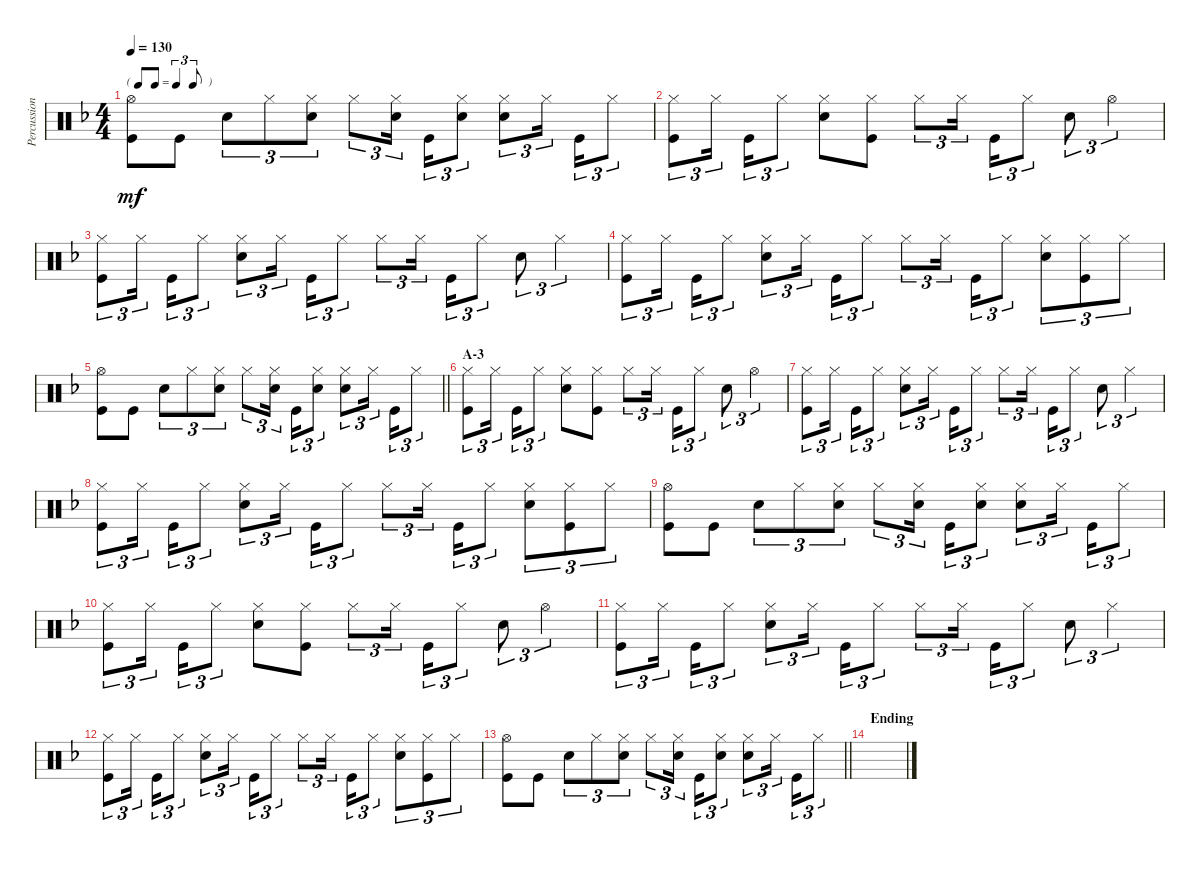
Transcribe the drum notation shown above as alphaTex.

\track ("Percussion I (Tainaka Ritsu)" "Percussion") {instrument percussion}
\staff {score}
\articulation defaults
\ts (4 4)
\tf triplet8th
\tempo 130
\clef neutral
\ks f
("Hi-Hat (open)" "Kick (hit)").8{dy mf} "Kick (hit)".8 "Snare (hit) 2".8{tu (3 2)} "Hi-Hat (closed)".8{tu (3 2)} ("Hi-Hat (closed)" "Snare (hit) 2").8{tu (3 2)} "Hi-Hat (closed)".8{tu (3 2)} ("Hi-Hat (closed)" "Snare (hit) 2").16{tu (3 2) beam splitsecondary} "Kick (hit)".16{tu (3 2)} ("Hi-Hat (closed)" "Snare (hit) 2").8{tu (3 2)} ("Hi-Hat (closed)" "Snare (hit) 2").8{tu (3 2)} "Hi-Hat (closed)".16{tu (3 2) beam splitsecondary} "Kick (hit)".16{tu (3 2)} "Hi-Hat (closed)".8{tu (3 2)} |
("Hi-Hat (closed)" "Kick (hit)").8{tu (3 2)} "Hi-Hat (closed)".16{tu (3 2) beam splitsecondary} "Kick (hit)".16{tu (3 2)} "Hi-Hat (closed)".8{tu (3 2)} ("Hi-Hat (closed)" "Snare (hit) 2").8 ("Hi-Hat (closed)" "Kick (hit)").8 "Hi-Hat (closed)".8{tu (3 2)} "Hi-Hat (closed)".16{tu (3 2) beam splitsecondary} "Kick (hit)".16{tu (3 2)} "Hi-Hat (closed)".8{tu (3 2)} "Snare (hit) 2".8{tu (3 2)} "Hi-Hat (open)".4{tu (3 2)} |
("Hi-Hat (closed)" "Kick (hit)").8{tu (3 2)} "Hi-Hat (closed)".16{tu (3 2) beam splitsecondary} "Kick (hit)".16{tu (3 2)} "Hi-Hat (closed)".8{tu (3 2)} ("Hi-Hat (closed)" "Snare (hit) 2").8{tu (3 2)} "Hi-Hat (closed)".16{tu (3 2) beam splitsecondary} "Kick (hit)".16{tu (3 2)} "Hi-Hat (closed)".8{tu (3 2)} "Hi-Hat (closed)".8{tu (3 2)} "Hi-Hat (closed)".16{tu (3 2) beam splitsecondary} "Kick (hit)".16{tu (3 2)} "Hi-Hat (closed)".8{tu (3 2)} "Snare (hit) 2".8{tu (3 2)} "Hi-Hat (closed)".4{tu (3 2)} |
("Hi-Hat (closed)" "Kick (hit)").8{tu (3 2)} "Hi-Hat (closed)".16{tu (3 2) beam splitsecondary} "Kick (hit)".16{tu (3 2)} "Hi-Hat (closed)".8{tu (3 2)} ("Hi-Hat (closed)" "Snare (hit) 2").8{tu (3 2)} "Hi-Hat (closed)".16{tu (3 2) beam splitsecondary} "Kick (hit)".16{tu (3 2)} "Hi-Hat (closed)".8{tu (3 2)} "Hi-Hat (closed)".8{tu (3 2)} "Hi-Hat (closed)".16{tu (3 2) beam splitsecondary} "Kick (hit)".16{tu (3 2)} "Hi-Hat (closed)".8{tu (3 2)} ("Hi-Hat (closed)" "Snare (hit) 2").8{tu (3 2)} ("Hi-Hat (closed)" "Kick (hit)").8{tu (3 2)} "Hi-Hat (closed)".8{tu (3 2)} |
\barLineRight lightlight
("Hi-Hat (open)" "Kick (hit)").8 "Kick (hit)".8 "Snare (hit) 2".8{tu (3 2)} "Hi-Hat (closed)".8{tu (3 2)} ("Hi-Hat (closed)" "Snare (hit) 2").8{tu (3 2)} "Hi-Hat (closed)".8{tu (3 2)} ("Hi-Hat (closed)" "Snare (hit) 2").16{tu (3 2) beam splitsecondary} "Kick (hit)".16{tu (3 2)} ("Hi-Hat (closed)" "Snare (hit) 2").8{tu (3 2)} ("Hi-Hat (closed)" "Snare (hit) 2").8{tu (3 2)} "Hi-Hat (closed)".16{tu (3 2) beam splitsecondary} "Kick (hit)".16{tu (3 2)} "Hi-Hat (closed)".8{tu (3 2)} |
\section ("" "A-3")
("Hi-Hat (closed)" "Kick (hit)").8{tu (3 2)} "Hi-Hat (closed)".16{tu (3 2) beam splitsecondary} "Kick (hit)".16{tu (3 2)} "Hi-Hat (closed)".8{tu (3 2)} ("Hi-Hat (closed)" "Snare (hit) 2").8 ("Hi-Hat (closed)" "Kick (hit)").8 "Hi-Hat (closed)".8{tu (3 2)} "Hi-Hat (closed)".16{tu (3 2) beam splitsecondary} "Kick (hit)".16{tu (3 2)} "Hi-Hat (closed)".8{tu (3 2)} "Snare (hit) 2".8{tu (3 2)} "Hi-Hat (open)".4{tu (3 2)} |
("Hi-Hat (closed)" "Kick (hit)").8{tu (3 2)} "Hi-Hat (closed)".16{tu (3 2) beam splitsecondary} "Kick (hit)".16{tu (3 2)} "Hi-Hat (closed)".8{tu (3 2)} ("Hi-Hat (closed)" "Snare (hit) 2").8{tu (3 2)} "Hi-Hat (closed)".16{tu (3 2) beam splitsecondary} "Kick (hit)".16{tu (3 2)} "Hi-Hat (closed)".8{tu (3 2)} "Hi-Hat (closed)".8{tu (3 2)} "Hi-Hat (closed)".16{tu (3 2) beam splitsecondary} "Kick (hit)".16{tu (3 2)} "Hi-Hat (closed)".8{tu (3 2)} "Snare (hit) 2".8{tu (3 2)} "Hi-Hat (closed)".4{tu (3 2)} |
("Hi-Hat (closed)" "Kick (hit)").8{tu (3 2)} "Hi-Hat (closed)".16{tu (3 2) beam splitsecondary} "Kick (hit)".16{tu (3 2)} "Hi-Hat (closed)".8{tu (3 2)} ("Hi-Hat (closed)" "Snare (hit) 2").8{tu (3 2)} "Hi-Hat (closed)".16{tu (3 2) beam splitsecondary} "Kick (hit)".16{tu (3 2)} "Hi-Hat (closed)".8{tu (3 2)} "Hi-Hat (closed)".8{tu (3 2)} "Hi-Hat (closed)".16{tu (3 2) beam splitsecondary} "Kick (hit)".16{tu (3 2)} "Hi-Hat (closed)".8{tu (3 2)} ("Hi-Hat (closed)" "Snare (hit) 2").8{tu (3 2)} ("Hi-Hat (closed)" "Kick (hit)").8{tu (3 2)} "Hi-Hat (closed)".8{tu (3 2)} |
("Hi-Hat (open)" "Kick (hit)").8 "Kick (hit)".8 "Snare (hit) 2".8{tu (3 2)} "Hi-Hat (closed)".8{tu (3 2)} ("Hi-Hat (closed)" "Snare (hit) 2").8{tu (3 2)} "Hi-Hat (closed)".8{tu (3 2)} ("Hi-Hat (closed)" "Snare (hit) 2").16{tu (3 2) beam splitsecondary} "Kick (hit)".16{tu (3 2)} ("Hi-Hat (closed)" "Snare (hit) 2").8{tu (3 2)} ("Hi-Hat (closed)" "Snare (hit) 2").8{tu (3 2)} "Hi-Hat (closed)".16{tu (3 2) beam splitsecondary} "Kick (hit)".16{tu (3 2)} "Hi-Hat (closed)".8{tu (3 2)} |
("Hi-Hat (closed)" "Kick (hit)").8{tu (3 2)} "Hi-Hat (closed)".16{tu (3 2) beam splitsecondary} "Kick (hit)".16{tu (3 2)} "Hi-Hat (closed)".8{tu (3 2)} ("Hi-Hat (closed)" "Snare (hit) 2").8 ("Hi-Hat (closed)" "Kick (hit)").8 "Hi-Hat (closed)".8{tu (3 2)} "Hi-Hat (closed)".16{tu (3 2) beam splitsecondary} "Kick (hit)".16{tu (3 2)} "Hi-Hat (closed)".8{tu (3 2)} "Snare (hit) 2".8{tu (3 2)} "Hi-Hat (open)".4{tu (3 2)} |
("Hi-Hat (closed)" "Kick (hit)").8{tu (3 2)} "Hi-Hat (closed)".16{tu (3 2) beam splitsecondary} "Kick (hit)".16{tu (3 2)} "Hi-Hat (closed)".8{tu (3 2)} ("Hi-Hat (closed)" "Snare (hit) 2").8{tu (3 2)} "Hi-Hat (closed)".16{tu (3 2) beam splitsecondary} "Kick (hit)".16{tu (3 2)} "Hi-Hat (closed)".8{tu (3 2)} "Hi-Hat (closed)".8{tu (3 2)} "Hi-Hat (closed)".16{tu (3 2) beam splitsecondary} "Kick (hit)".16{tu (3 2)} "Hi-Hat (closed)".8{tu (3 2)} "Snare (hit) 2".8{tu (3 2)} "Hi-Hat (closed)".4{tu (3 2)} |
("Hi-Hat (closed)" "Kick (hit)").8{tu (3 2)} "Hi-Hat (closed)".16{tu (3 2) beam splitsecondary} "Kick (hit)".16{tu (3 2)} "Hi-Hat (closed)".8{tu (3 2)} ("Hi-Hat (closed)" "Snare (hit) 2").8{tu (3 2)} "Hi-Hat (closed)".16{tu (3 2) beam splitsecondary} "Kick (hit)".16{tu (3 2)} "Hi-Hat (closed)".8{tu (3 2)} "Hi-Hat (closed)".8{tu (3 2)} "Hi-Hat (closed)".16{tu (3 2) beam splitsecondary} "Kick (hit)".16{tu (3 2)} "Hi-Hat (closed)".8{tu (3 2)} ("Hi-Hat (closed)" "Snare (hit) 2").8{tu (3 2)} ("Hi-Hat (closed)" "Kick (hit)").8{tu (3 2)} "Hi-Hat (closed)".8{tu (3 2)} |
\barLineRight lightlight
("Hi-Hat (open)" "Kick (hit)").8 "Kick (hit)".8 "Snare (hit) 2".8{tu (3 2)} "Hi-Hat (closed)".8{tu (3 2)} ("Hi-Hat (closed)" "Snare (hit) 2").8{tu (3 2)} "Hi-Hat (closed)".8{tu (3 2)} ("Hi-Hat (closed)" "Snare (hit) 2").16{tu (3 2) beam splitsecondary} "Kick (hit)".16{tu (3 2)} ("Hi-Hat (closed)" "Snare (hit) 2").8{tu (3 2)} ("Hi-Hat (closed)" "Snare (hit) 2").8{tu (3 2)} "Hi-Hat (closed)".16{tu (3 2) beam splitsecondary} "Kick (hit)".16{tu (3 2)} "Hi-Hat (closed)".8{tu (3 2)} |
\section ("" "Ending")
